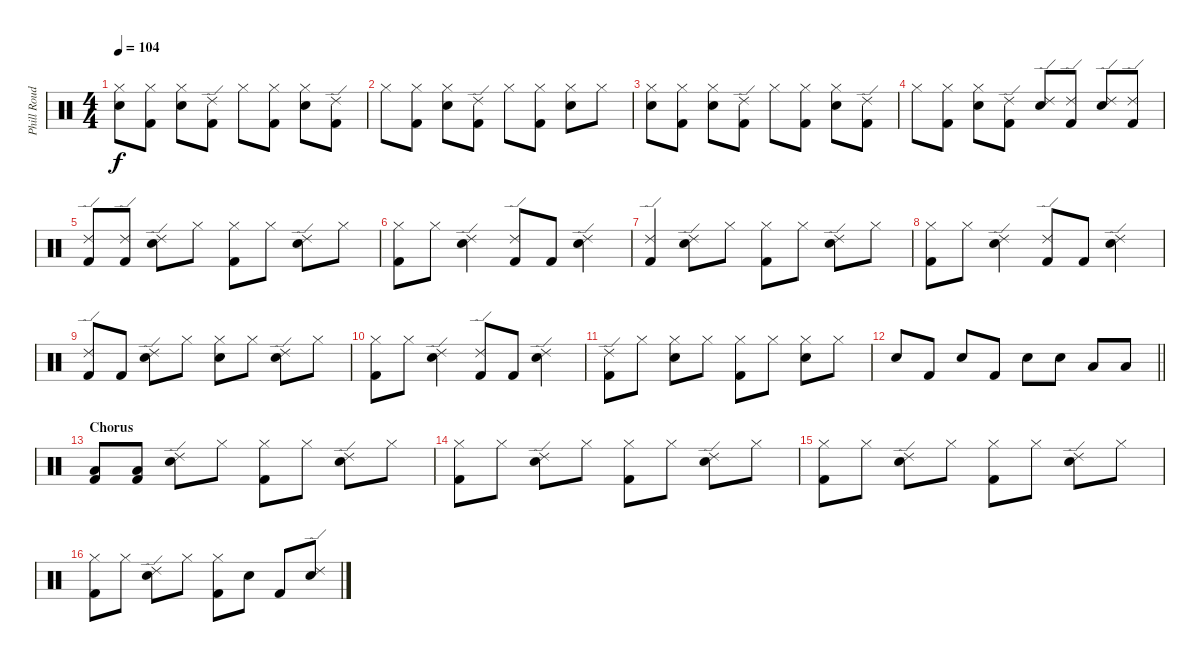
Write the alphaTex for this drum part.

\track ("Phill Roud" "Phill Roud") {instrument percussion}
\staff {score}
\articulation defaults
\ts (4 4)
\tempo 104
\clef neutral
\ks c
("Hi-Hat (closed)" "Snare (hit) 2").8{dy f} ("Hi-Hat (closed)" "Kick (hit) 2").8 ("Hi-Hat (closed)" "Snare (hit) 2").8 ("Kick (hit) 2" "Ride (edge) 2").8 "Hi-Hat (closed)".8 ("Hi-Hat (closed)" "Kick (hit) 2").8 ("Hi-Hat (closed)" "Snare (hit) 2").8 ("Kick (hit) 2" "Ride (edge) 2").8 |
"Hi-Hat (closed)".8 ("Hi-Hat (closed)" "Kick (hit) 2").8 ("Hi-Hat (closed)" "Snare (hit) 2").8 ("Kick (hit) 2" "Ride (edge) 2").8 "Hi-Hat (closed)".8 ("Hi-Hat (closed)" "Kick (hit) 2").8 ("Hi-Hat (closed)" "Snare (hit) 2").8 "Hi-Hat (closed)".8 |
("Hi-Hat (closed)" "Snare (hit) 2").8 ("Hi-Hat (closed)" "Kick (hit) 2").8 ("Hi-Hat (closed)" "Snare (hit) 2").8 ("Kick (hit) 2" "Ride (edge) 2").8 "Hi-Hat (closed)".8 ("Hi-Hat (closed)" "Kick (hit) 2").8 ("Hi-Hat (closed)" "Snare (hit) 2").8 ("Kick (hit) 2" "Ride (edge) 2").8 |
"Hi-Hat (closed)".8 ("Hi-Hat (closed)" "Kick (hit) 2").8 ("Hi-Hat (closed)" "Snare (hit) 2").8 ("Kick (hit) 2" "Ride (edge) 2").8 ("Snare (hit) 2" "Ride (edge) 2").8 ("Kick (hit) 2" "Ride (edge) 2").8 ("Snare (hit) 2" "Ride (edge) 2").8 ("Kick (hit) 2" "Ride (edge) 2").8 |
("Kick (hit) 2" "Ride (edge) 2").8 ("Kick (hit) 2" "Ride (edge) 2").8 ("Snare (hit) 2" "Ride (edge) 2").8 "Hi-Hat (closed)".8 ("Hi-Hat (closed)" "Kick (hit) 2").8 "Hi-Hat (closed)".8 ("Snare (hit) 2" "Ride (edge) 2").8 "Hi-Hat (closed)".8 |
("Hi-Hat (closed)" "Kick (hit) 2").8 "Hi-Hat (closed)".8 ("Snare (hit) 2" "Ride (edge) 2").4 ("Kick (hit) 2" "Ride (edge) 2").8 "Kick (hit) 2".8 ("Snare (hit) 2" "Ride (edge) 2").4 |
("Kick (hit) 2" "Ride (edge) 2").4 ("Snare (hit) 2" "Ride (edge) 2").8 "Hi-Hat (closed)".8 ("Hi-Hat (closed)" "Kick (hit) 2").8 "Hi-Hat (closed)".8 ("Snare (hit) 2" "Ride (edge) 2").8 "Hi-Hat (closed)".8 |
("Hi-Hat (closed)" "Kick (hit) 2").8 "Hi-Hat (closed)".8 ("Snare (hit) 2" "Ride (edge) 2").4 ("Kick (hit) 2" "Ride (edge) 2").8 "Kick (hit) 2".8 ("Snare (hit) 2" "Ride (edge) 2").4 |
("Kick (hit) 2" "Ride (edge) 2").8 "Kick (hit) 2".8 ("Snare (hit) 2" "Ride (edge) 2").8 "Hi-Hat (closed)".8 ("Hi-Hat (closed)" "Snare (hit) 2").8 "Hi-Hat (closed)".8 ("Snare (hit) 2" "Ride (edge) 2").8 "Hi-Hat (closed)".8 |
("Hi-Hat (closed)" "Kick (hit) 2").8 "Hi-Hat (closed)".8 ("Snare (hit) 2" "Ride (edge) 2").4 ("Kick (hit) 2" "Ride (edge) 2").8 "Kick (hit) 2".8 ("Snare (hit) 2" "Ride (edge) 2").4 |
("Kick (hit) 2" "Ride (edge) 2").8 "Hi-Hat (closed)".8 ("Hi-Hat (closed)" "Snare (hit) 2").8 "Hi-Hat (closed)".8 ("Hi-Hat (closed)" "Kick (hit) 2").8 "Hi-Hat (closed)".8 ("Hi-Hat (closed)" "Snare (hit) 2").8 "Hi-Hat (closed)".8 |
\barLineRight lightlight "Snare (hit) 2".8 "Kick (hit) 2".8 "Snare (hit) 2".8 "Kick (hit) 2".8 "Snare (hit) 2".8 "Snare (hit) 2".8 "Low Tom (hit)".8 "Low Tom (hit)".8
|
\section ("" "Chorus")
("Kick (hit) 2" "Low Floor Tom (hit)").8 ("Kick (hit) 2" "Low Floor Tom (hit)").8 ("Snare (hit) 2" "Ride (edge) 2").8 "Hi-Hat (closed)".8 ("Hi-Hat (closed)" "Kick (hit) 2").8 "Hi-Hat (closed)".8 ("Snare (hit) 2" "Ride (edge) 2").8 "Hi-Hat (closed)".8 |
("Hi-Hat (closed)" "Kick (hit) 2").8 "Hi-Hat (closed)".8 ("Snare (hit) 2" "Ride (edge) 2").8 "Hi-Hat (closed)".8 ("Hi-Hat (closed)" "Kick (hit) 2").8 "Hi-Hat (closed)".8 ("Snare (hit) 2" "Ride (edge) 2").8 "Hi-Hat (closed)".8 |
("Hi-Hat (closed)" "Kick (hit) 2").8 "Hi-Hat (closed)".8 ("Snare (hit) 2" "Ride (edge) 2").8 "Hi-Hat (closed)".8 ("Hi-Hat (closed)" "Kick (hit) 2").8 "Hi-Hat (closed)".8 ("Snare (hit) 2" "Ride (edge) 2").8 "Hi-Hat (closed)".8 |
("Hi-Hat (closed)" "Kick (hit) 2").8 "Hi-Hat (closed)".8 ("Snare (hit) 2" "Ride (edge) 2").8 "Hi-Hat (closed)".8 ("Hi-Hat (closed)" "Kick (hit) 2").8 "Snare (hit) 2".8 "Kick (hit) 2".8 ("Snare (hit) 2" "Ride (edge) 2").8
